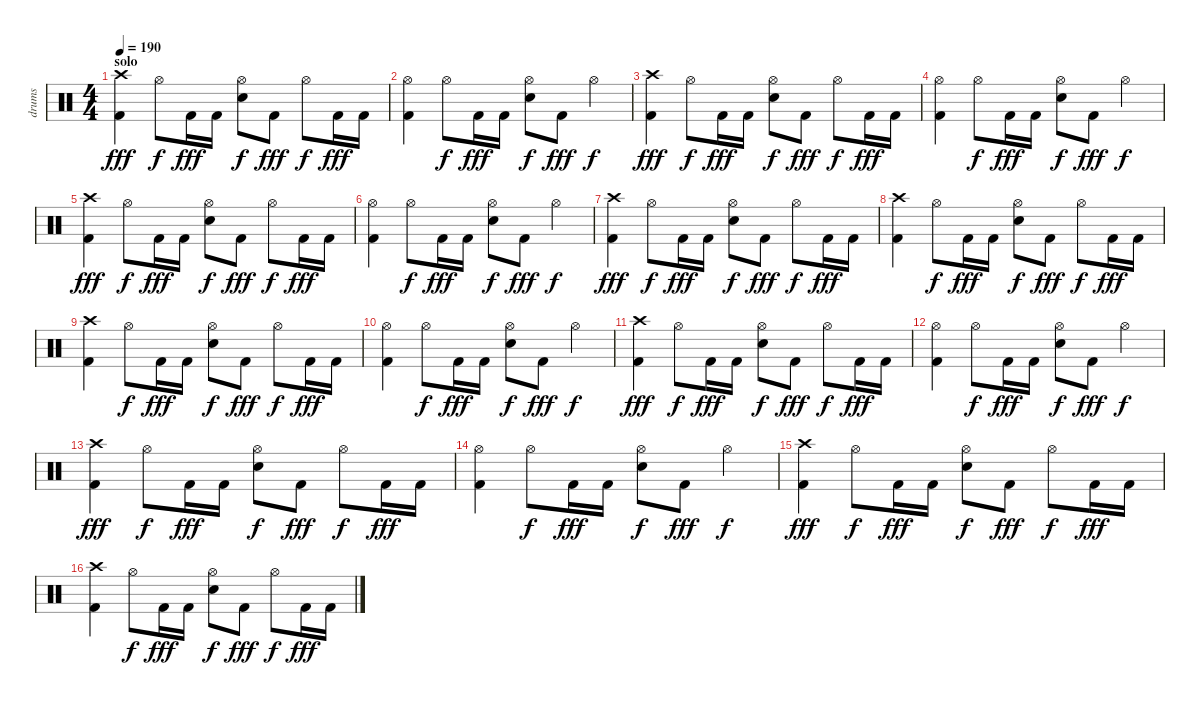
\track ("drums" "drums") {instrument percussion}
\staff {score}
\articulation defaults
\ts (4 4)
\section ("" "solo")
\tempo 190
\clef neutral
\ks c
("Crash high (hit)" "Kick (hit) 2").4{dy fff} "Hi-Hat (open)".8{dy f} "Kick (hit) 2".16{dy fff} "Kick (hit) 2".16 ("Hi-Hat (open)" "Snare (hit) 2").8{dy f} "Kick (hit) 2".8{dy fff} "Hi-Hat (open)".8{dy f} "Kick (hit) 2".16{dy fff} "Kick (hit) 2".16 |
("Hi-Hat (open)" "Kick (hit) 2").4 "Hi-Hat (open)".8{dy f} "Kick (hit) 2".16{dy fff} "Kick (hit) 2".16 ("Hi-Hat (open)" "Snare (hit) 2").8{dy f} "Kick (hit) 2".8{dy fff} "Hi-Hat (open)".4{dy f} |
("Crash high (hit)" "Kick (hit) 2").4{dy fff} "Hi-Hat (open)".8{dy f} "Kick (hit) 2".16{dy fff} "Kick (hit) 2".16 ("Hi-Hat (open)" "Snare (hit) 2").8{dy f} "Kick (hit) 2".8{dy fff} "Hi-Hat (open)".8{dy f} "Kick (hit) 2".16{dy fff} "Kick (hit) 2".16 |
("Hi-Hat (open)" "Kick (hit) 2").4 "Hi-Hat (open)".8{dy f} "Kick (hit) 2".16{dy fff} "Kick (hit) 2".16 ("Hi-Hat (open)" "Snare (hit) 2").8{dy f} "Kick (hit) 2".8{dy fff} "Hi-Hat (open)".4{dy f} |
("Crash high (hit)" "Kick (hit) 2").4{dy fff} "Hi-Hat (open)".8{dy f} "Kick (hit) 2".16{dy fff} "Kick (hit) 2".16 ("Hi-Hat (open)" "Snare (hit) 2").8{dy f} "Kick (hit) 2".8{dy fff} "Hi-Hat (open)".8{dy f} "Kick (hit) 2".16{dy fff} "Kick (hit) 2".16 |
("Hi-Hat (open)" "Kick (hit) 2").4 "Hi-Hat (open)".8{dy f} "Kick (hit) 2".16{dy fff} "Kick (hit) 2".16 ("Hi-Hat (open)" "Snare (hit) 2").8{dy f} "Kick (hit) 2".8{dy fff} "Hi-Hat (open)".4{dy f} |
("Crash high (hit)" "Kick (hit) 2").4{dy fff} "Hi-Hat (open)".8{dy f} "Kick (hit) 2".16{dy fff} "Kick (hit) 2".16 ("Hi-Hat (open)" "Snare (hit) 2").8{dy f} "Kick (hit) 2".8{dy fff} "Hi-Hat (open)".8{dy f} "Kick (hit) 2".16{dy fff} "Kick (hit) 2".16 |
("Crash high (hit)" "Kick (hit) 2").4 "Hi-Hat (open)".8{dy f} "Kick (hit) 2".16{dy fff} "Kick (hit) 2".16 ("Hi-Hat (open)" "Snare (hit) 2").8{dy f} "Kick (hit) 2".8{dy fff} "Hi-Hat (open)".8{dy f} "Kick (hit) 2".16{dy fff} "Kick (hit) 2".16 |
("Crash high (hit)" "Kick (hit) 2").4 "Hi-Hat (open)".8{dy f} "Kick (hit) 2".16{dy fff} "Kick (hit) 2".16 ("Hi-Hat (open)" "Snare (hit) 2").8{dy f} "Kick (hit) 2".8{dy fff} "Hi-Hat (open)".8{dy f} "Kick (hit) 2".16{dy fff} "Kick (hit) 2".16 |
("Hi-Hat (open)" "Kick (hit) 2").4 "Hi-Hat (open)".8{dy f} "Kick (hit) 2".16{dy fff} "Kick (hit) 2".16 ("Hi-Hat (open)" "Snare (hit) 2").8{dy f} "Kick (hit) 2".8{dy fff} "Hi-Hat (open)".4{dy f} |
("Crash high (hit)" "Kick (hit) 2").4{dy fff} "Hi-Hat (open)".8{dy f} "Kick (hit) 2".16{dy fff} "Kick (hit) 2".16 ("Hi-Hat (open)" "Snare (hit) 2").8{dy f} "Kick (hit) 2".8{dy fff} "Hi-Hat (open)".8{dy f} "Kick (hit) 2".16{dy fff} "Kick (hit) 2".16 |
("Hi-Hat (open)" "Kick (hit) 2").4 "Hi-Hat (open)".8{dy f} "Kick (hit) 2".16{dy fff} "Kick (hit) 2".16 ("Hi-Hat (open)" "Snare (hit) 2").8{dy f} "Kick (hit) 2".8{dy fff} "Hi-Hat (open)".4{dy f} |
("Crash high (hit)" "Kick (hit) 2").4{dy fff} "Hi-Hat (open)".8{dy f} "Kick (hit) 2".16{dy fff} "Kick (hit) 2".16 ("Hi-Hat (open)" "Snare (hit) 2").8{dy f} "Kick (hit) 2".8{dy fff} "Hi-Hat (open)".8{dy f} "Kick (hit) 2".16{dy fff} "Kick (hit) 2".16 |
("Hi-Hat (open)" "Kick (hit) 2").4 "Hi-Hat (open)".8{dy f} "Kick (hit) 2".16{dy fff} "Kick (hit) 2".16 ("Hi-Hat (open)" "Snare (hit) 2").8{dy f} "Kick (hit) 2".8{dy fff} "Hi-Hat (open)".4{dy f} |
("Crash high (hit)" "Kick (hit) 2").4{dy fff} "Hi-Hat (open)".8{dy f} "Kick (hit) 2".16{dy fff} "Kick (hit) 2".16 ("Hi-Hat (open)" "Snare (hit) 2").8{dy f} "Kick (hit) 2".8{dy fff} "Hi-Hat (open)".8{dy f} "Kick (hit) 2".16{dy fff} "Kick (hit) 2".16 |
("Crash high (hit)" "Kick (hit) 2").4 "Hi-Hat (open)".8{dy f} "Kick (hit) 2".16{dy fff} "Kick (hit) 2".16 ("Hi-Hat (open)" "Snare (hit) 2").8{dy f} "Kick (hit) 2".8{dy fff} "Hi-Hat (open)".8{dy f} "Kick (hit) 2".16{dy fff} "Kick (hit) 2".16
